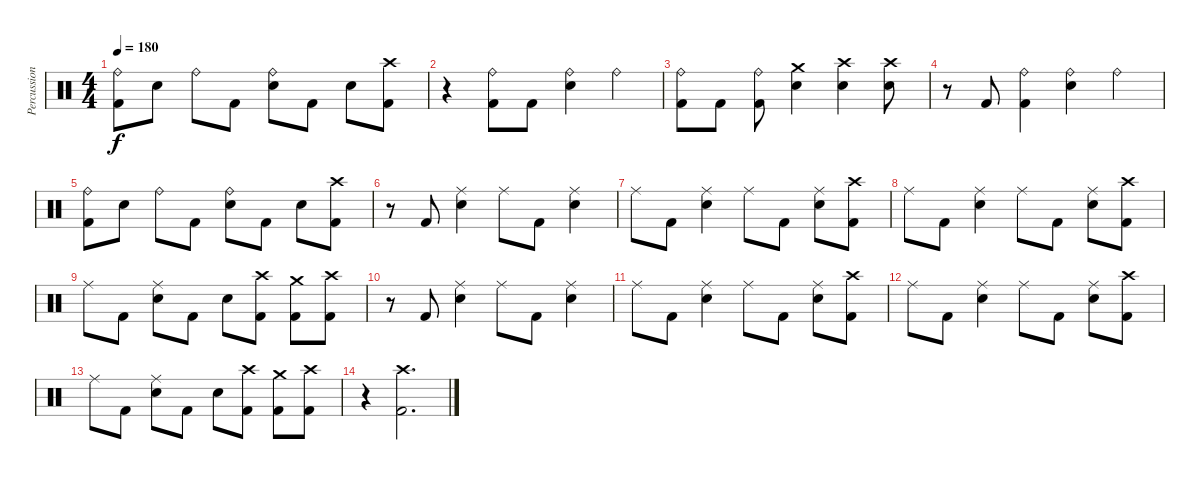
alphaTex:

\track ("Percussion" "Percussion") {instrument percussion}
\staff {score}
\articulation defaults
\ts (4 4)
\tempo 180
\clef neutral
\ks c
("Ride (bell)" "Kick (hit) 2").8{dy f} "Electric Snare (hit)".8 "Ride (bell)".8 "Kick (hit) 2".8 ("Ride (bell)" "Electric Snare (hit)").8 "Kick (hit) 2".8 "Electric Snare (hit)".8 ("Crash high (hit)" "Kick (hit) 2").8 |
r.4 ("Ride (bell)" "Kick (hit) 2").8 "Kick (hit) 2".8 ("Ride (bell)" "Electric Snare (hit)").4 "Ride (bell)".4 |
("Ride (bell)" "Kick (hit) 2").8 "Kick (hit) 2".8 ("Ride (bell)" "Kick (hit) 2").8 ("Crash medium (hit)" "Electric Snare (hit)").4 ("Crash high (hit)" "Electric Snare (hit)").4 ("Crash high (hit)" "Electric Snare (hit)").8 |
r.8 "Kick (hit) 2".8 ("Ride (bell)" "Kick (hit) 2").4 ("Ride (bell)" "Electric Snare (hit)").4 "Ride (bell)".4 |
("Ride (bell)" "Kick (hit) 2").8 "Electric Snare (hit)".8 "Ride (bell)".8 "Kick (hit) 2".8 ("Ride (bell)" "Electric Snare (hit)").8 "Kick (hit) 2".8 "Electric Snare (hit)".8 ("Crash high (hit)" "Kick (hit) 2").8 |
r.8 "Kick (hit) 2".8 ("Ride (middle)" "Electric Snare (hit)").4 "Ride (middle)".8 "Kick (hit) 2".8 ("Ride (middle)" "Electric Snare (hit)").4 |
"Ride (middle)".8 "Kick (hit) 2".8 ("Ride (middle)" "Electric Snare (hit)").4 "Ride (middle)".8 "Kick (hit) 2".8 ("Ride (middle)" "Electric Snare (hit)").8 ("Crash high (hit)" "Kick (hit) 2").8 |
"Ride (middle)".8 "Kick (hit) 2".8 ("Ride (middle)" "Electric Snare (hit)").4 "Ride (middle)".8 "Kick (hit) 2".8 ("Ride (middle)" "Electric Snare (hit)").8 ("Crash high (hit)" "Kick (hit) 2").8 |
"Ride (middle)".8 "Kick (hit) 2".8 ("Ride (middle)" "Electric Snare (hit)").8 "Kick (hit) 2".8 "Electric Snare (hit)".8 ("Crash high (hit)" "Kick (hit) 2").8 ("Crash medium (hit)" "Kick (hit) 2").8 ("Crash high (hit)" "Kick (hit) 2").8 |
r.8 "Kick (hit) 2".8 ("Ride (middle)" "Electric Snare (hit)").4 "Ride (middle)".8 "Kick (hit) 2".8 ("Ride (middle)" "Electric Snare (hit)").4 |
"Ride (middle)".8 "Kick (hit) 2".8 ("Ride (middle)" "Electric Snare (hit)").4 "Ride (middle)".8 "Kick (hit) 2".8 ("Ride (middle)" "Electric Snare (hit)").8 ("Crash high (hit)" "Kick (hit) 2").8 |
"Ride (middle)".8 "Kick (hit) 2".8 ("Ride (middle)" "Electric Snare (hit)").4 "Ride (middle)".8 "Kick (hit) 2".8 ("Ride (middle)" "Electric Snare (hit)").8 ("Crash high (hit)" "Kick (hit) 2").8 |
"Ride (middle)".8 "Kick (hit) 2".8 ("Ride (middle)" "Electric Snare (hit)").8 "Kick (hit) 2".8 "Electric Snare (hit)".8 ("Crash high (hit)" "Kick (hit) 2").8 ("Crash medium (hit)" "Kick (hit) 2").8 ("Crash high (hit)" "Kick (hit) 2").8 |
r.4 ("Crash high (hit)" "Kick (hit) 2").2{d}
